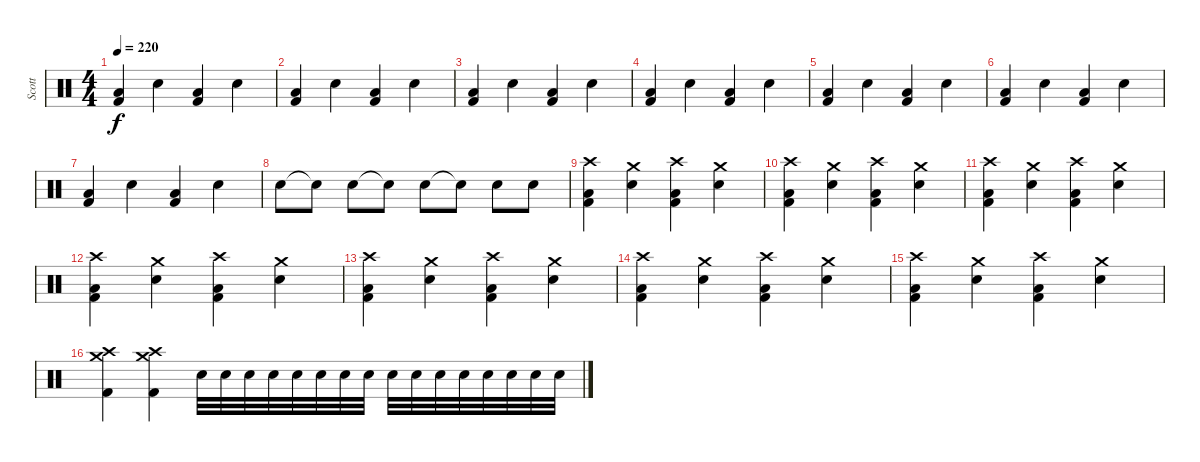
\track ("Scott" "Scott") {instrument percussion}
\staff {score}
\articulation defaults
\ts (4 4)
\tempo 220
\clef neutral
\ks c
("Kick (hit) 2" "Low Floor Tom (hit)").4{dy f} "Snare (hit) 2".4 ("Kick (hit) 2" "Low Floor Tom (hit)").4 "Snare (hit) 2".4 |
("Kick (hit) 2" "Low Floor Tom (hit)").4 "Snare (hit) 2".4 ("Kick (hit) 2" "Low Floor Tom (hit)").4 "Snare (hit) 2".4 |
("Kick (hit) 2" "Low Floor Tom (hit)").4 "Snare (hit) 2".4 ("Kick (hit) 2" "Low Floor Tom (hit)").4 "Snare (hit) 2".4 |
("Kick (hit) 2" "Low Floor Tom (hit)").4 "Snare (hit) 2".4 ("Kick (hit) 2" "Low Floor Tom (hit)").4 "Snare (hit) 2".4 |
("Kick (hit) 2" "Low Floor Tom (hit)").4 "Snare (hit) 2".4 ("Kick (hit) 2" "Low Floor Tom (hit)").4 "Snare (hit) 2".4 |
("Kick (hit) 2" "Low Floor Tom (hit)").4 "Snare (hit) 2".4 ("Kick (hit) 2" "Low Floor Tom (hit)").4 "Snare (hit) 2".4 |
("Kick (hit) 2" "Low Floor Tom (hit)").4 "Snare (hit) 2".4 ("Kick (hit) 2" "Low Floor Tom (hit)").4 "Snare (hit) 2".4 |
"Snare (hit) 2".8 "Snare (hit)"{t}.8 "Snare (hit) 2".8 "Snare (hit)"{t}.8 "Snare (hit) 2".8 "Snare (hit) 2"{t}.8 "Snare (hit) 2".8 "Snare (hit) 2".8 |
("Crash high (hit)" "Kick (hit) 2" "Low Floor Tom (hit)").4 ("Crash medium (hit)" "Snare (hit) 2").4 ("Crash high (hit)" "Kick (hit) 2" "Low Floor Tom (hit)").4 ("Crash medium (hit)" "Snare (hit) 2").4 |
("Crash high (hit)" "Kick (hit) 2" "Low Floor Tom (hit)").4 ("Crash medium (hit)" "Snare (hit) 2").4 ("Crash high (hit)" "Kick (hit) 2" "Low Floor Tom (hit)").4 ("Crash medium (hit)" "Snare (hit) 2").4 |
("Crash high (hit)" "Kick (hit) 2" "Low Floor Tom (hit)").4 ("Crash medium (hit)" "Snare (hit) 2").4 ("Crash high (hit)" "Kick (hit) 2" "Low Floor Tom (hit)").4 ("Crash medium (hit)" "Snare (hit) 2").4 |
("Crash high (hit)" "Kick (hit) 2" "Low Floor Tom (hit)").4 ("Crash medium (hit)" "Snare (hit) 2").4 ("Crash high (hit)" "Kick (hit) 2" "Low Floor Tom (hit)").4 ("Crash medium (hit)" "Snare (hit) 2").4 |
("Crash high (hit)" "Kick (hit) 2" "Low Floor Tom (hit)").4 ("Crash medium (hit)" "Snare (hit) 2").4 ("Crash high (hit)" "Kick (hit) 2" "Low Floor Tom (hit)").4 ("Crash medium (hit)" "Snare (hit) 2").4 |
("Crash high (hit)" "Kick (hit) 2" "Low Floor Tom (hit)").4 ("Crash medium (hit)" "Snare (hit) 2").4 ("Crash high (hit)" "Kick (hit) 2" "Low Floor Tom (hit)").4 ("Crash medium (hit)" "Snare (hit) 2").4 |
("Crash high (hit)" "Kick (hit) 2" "Low Floor Tom (hit)").4 ("Crash medium (hit)" "Snare (hit) 2").4 ("Crash high (hit)" "Kick (hit) 2" "Low Floor Tom (hit)").4 ("Crash medium (hit)" "Snare (hit) 2").4 |
("Crash medium (hit)" "Crash high (hit)" "Kick (hit) 2").4 ("Crash medium (hit)" "Crash high (hit)" "Kick (hit) 2").4 "Snare (hit) 2".32 "Snare (hit) 2".32 "Snare (hit) 2".32 "Snare (hit) 2".32 "Snare (hit) 2".32 "Snare (hit) 2".32 "Snare (hit) 2".32 "Snare (hit) 2".32 "Snare (hit) 2".32 "Snare (hit) 2".32 "Snare (hit) 2".32 "Snare (hit) 2".32 "Snare (hit) 2".32 "Snare (hit) 2".32 "Snare (hit) 2".32 "Snare (hit) 2".32
